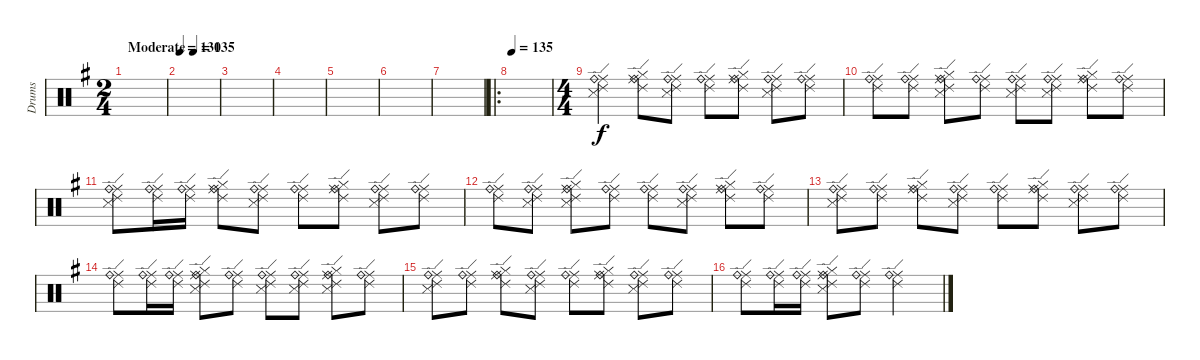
\track ("Drums" "Drums") {instrument percussion}
\staff {score}
\articulation defaults
\ts (2 4)
\tempo (135 "Moderate")
\tempo 115
\tempo (135 "Moderate")
\clef neutral
\ks eminor
|
\tempo 130
|
|
|
|
|
|
\ro
\tempo 135
|
\ts (4 4)
("Ride (middle)" "Snare (side stick) 3" "Ride (edge) 2" "Ride (bell)").4 ("Ride (middle)" "Hi-Hat (closed)" "Ride (edge) 2" "Ride (bell)").8 ("Ride (middle)" "Snare (side stick) 3" "Ride (edge) 2" "Ride (bell)").8 ("Ride (middle)" "Ride (edge) 2" "Ride (bell)").8 ("Ride (middle)" "Hi-Hat (closed)" "Ride (edge) 2" "Ride (bell)").8 ("Ride (middle)" "Snare (side stick) 3" "Ride (edge) 2" "Ride (bell)").8 ("Ride (middle)" "Ride (edge) 2" "Ride (bell)").8 |
("Ride (middle)" "Ride (edge) 2" "Ride (bell)").8 ("Ride (middle)" "Ride (edge) 2" "Ride (bell)").8 ("Ride (middle)" "Hi-Hat (closed)" "Snare (side stick) 3" "Ride (edge) 2" "Ride (bell)").8 ("Ride (middle)" "Ride (edge) 2" "Ride (bell)").8 ("Ride (middle)" "Snare (side stick) 3" "Ride (edge) 2" "Ride (bell)").8 ("Ride (middle)" "Snare (side stick) 3" "Ride (edge) 2" "Ride (bell)").8 ("Ride (middle)" "Hi-Hat (closed)" "Ride (edge) 2" "Ride (bell)").8 ("Ride (middle)" "Ride (edge) 2" "Ride (bell)").8 |
("Ride (middle)" "Snare (side stick) 3" "Ride (edge) 2" "Ride (bell)").8 ("Ride (middle)" "Ride (edge) 2" "Ride (bell)").16 ("Ride (middle)" "Ride (edge) 2" "Ride (bell)").16 ("Ride (middle)" "Hi-Hat (closed)" "Ride (edge) 2" "Ride (bell)").8 ("Ride (middle)" "Snare (side stick) 3" "Ride (edge) 2" "Ride (bell)").8 ("Ride (middle)" "Ride (edge) 2" "Ride (bell)").8 ("Ride (middle)" "Hi-Hat (closed)" "Ride (edge) 2" "Ride (bell)").8 ("Ride (middle)" "Snare (side stick) 3" "Ride (edge) 2" "Ride (bell)").8 ("Ride (middle)" "Ride (edge) 2" "Ride (bell)").8 |
("Ride (middle)" "Ride (edge) 2" "Ride (bell)").8 ("Ride (middle)" "Snare (side stick) 3" "Ride (edge) 2" "Ride (bell)").8 ("Ride (middle)" "Hi-Hat (closed)" "Snare (side stick) 3" "Ride (edge) 2" "Ride (bell)").8 ("Ride (middle)" "Ride (edge) 2" "Ride (bell)").8 ("Ride (middle)" "Ride (edge) 2" "Ride (bell)").8 ("Ride (middle)" "Snare (side stick) 3" "Ride (edge) 2" "Ride (bell)").8 ("Ride (middle)" "Hi-Hat (closed)" "Ride (edge) 2" "Ride (bell)").8 ("Ride (middle)" "Ride (edge) 2" "Ride (bell)").8 |
("Ride (middle)" "Snare (side stick) 3" "Ride (edge) 2" "Ride (bell)").8 ("Ride (middle)" "Ride (edge) 2" "Ride (bell)").8 ("Ride (middle)" "Hi-Hat (closed)" "Ride (edge) 2" "Ride (bell)").8 ("Ride (middle)" "Snare (side stick) 3" "Ride (edge) 2" "Ride (bell)").8 ("Ride (middle)" "Ride (edge) 2" "Ride (bell)").8 ("Ride (middle)" "Hi-Hat (closed)" "Ride (edge) 2" "Ride (bell)").8 ("Ride (middle)" "Snare (side stick) 3" "Ride (edge) 2" "Ride (bell)").8 ("Ride (middle)" "Ride (edge) 2" "Ride (bell)").8 |
("Ride (middle)" "Ride (edge) 2" "Ride (bell)").8 ("Ride (middle)" "Ride (edge) 2" "Ride (bell)").16 ("Ride (middle)" "Ride (edge) 2" "Ride (bell)").16 ("Ride (middle)" "Hi-Hat (closed)" "Snare (side stick) 3" "Ride (edge) 2" "Ride (bell)").8 ("Ride (middle)" "Ride (edge) 2" "Ride (bell)").8 ("Ride (middle)" "Snare (side stick) 3" "Ride (edge) 2" "Ride (bell)").8 ("Ride (middle)" "Snare (side stick) 3" "Ride (edge) 2" "Ride (bell)").8 ("Ride (middle)" "Hi-Hat (closed)" "Snare (side stick) 3" "Ride (edge) 2" "Ride (bell)").8 ("Ride (middle)" "Ride (edge) 2" "Ride (bell)").8 |
("Ride (middle)" "Snare (side stick) 3" "Ride (edge) 2" "Ride (bell)").8 ("Ride (middle)" "Ride (edge) 2" "Ride (bell)").8 ("Ride (middle)" "Hi-Hat (closed)" "Ride (edge) 2" "Ride (bell)").8 ("Ride (middle)" "Snare (side stick) 3" "Ride (edge) 2" "Ride (bell)").8 ("Ride (middle)" "Ride (edge) 2" "Ride (bell)").8 ("Ride (middle)" "Hi-Hat (closed)" "Ride (edge) 2" "Ride (bell)").8 ("Ride (middle)" "Snare (side stick) 3" "Ride (edge) 2" "Ride (bell)").8 ("Ride (middle)" "Ride (edge) 2" "Ride (bell)").8 |
("Ride (middle)" "Ride (edge) 2" "Ride (bell)").8 ("Ride (middle)" "Ride (edge) 2" "Ride (bell)").16 ("Ride (middle)" "Ride (edge) 2" "Ride (bell)").16 ("Ride (middle)" "Hi-Hat (closed)" "Snare (side stick) 3" "Ride (edge) 2" "Ride (bell)").8 ("Ride (middle)" "Ride (edge) 2" "Ride (bell)").8 ("Ride (middle)" "Ride (edge) 2" "Ride (bell)").2
